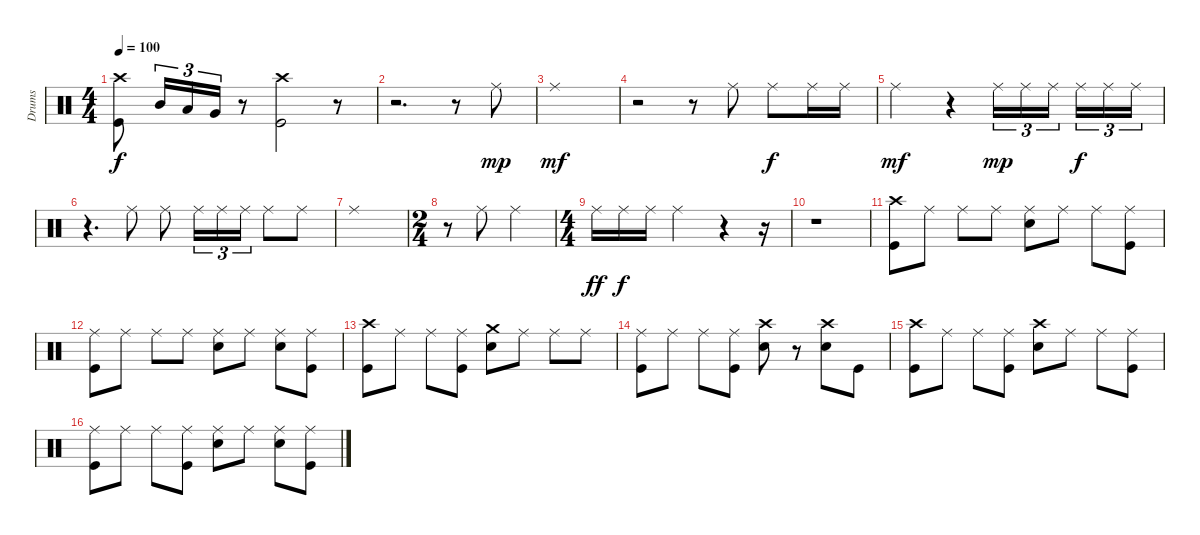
\track ("Drums" "Drums") {instrument percussion}
\staff {score}
\articulation defaults
\ts (4 4)
\tempo 100
\clef neutral
\ks c
("Crash high (hit)" "Kick (hit)").8{dy f} "Mid Tom (hit)".16{tu (3 2)} "Low Tom (hit)".16{tu (3 2)} "Very Low Tom (hit)".16{tu (3 2)} r.8 ("Crash high (hit)" "Kick (hit)").2 r.8 |
r.2{d} r.8 "Ride (middle)".8{dy mp} |
"Ride (middle)".1{dy mf} |
r.2 r.8 "Ride (middle)".8 "Ride (middle)".8{dy f} "Ride (middle)".16 "Ride (middle)".16 |
"Ride (middle)".2{dy mf} r.4 "Ride (middle)".16{tu (3 2) dy mp} "Ride (middle)".16{tu (3 2)} "Ride (middle)".16{tu (3 2)} "Ride (middle)".16{tu (3 2) dy f} "Ride (middle)".16{tu (3 2)} "Ride (middle)".16{tu (3 2)} |
r.4{d} "Ride (middle)".8 "Ride (middle)".8 "Ride (middle)".16{tu (3 2)} "Ride (middle)".16{tu (3 2)} "Ride (middle)".16{tu (3 2)} "Ride (middle)".8 "Ride (middle)".8 |
"Ride (middle)".1 |
\ts (2 4)
r.8 "Ride (middle)".8 "Ride (middle)".4 |
\ts (4 4)
"Ride (middle)".16{dy ff} "Ride (middle)".16{dy f} "Ride (middle)".16 "Ride (middle)".2 r.4 r.16 |
r.1 |
("Crash high (hit)" "Kick (hit)").8 "Ride (middle)".8 "Ride (middle)".8 "Ride (middle)".8 ("Ride (middle)" "Snare (hit) 2").8 "Ride (middle)".8 "Ride (middle)".8 ("Ride (middle)" "Kick (hit)").8 |
("Ride (middle)" "Kick (hit)").8 "Ride (middle)".8 "Ride (middle)".8 "Ride (middle)".8 ("Ride (middle)" "Snare (hit) 2").8 "Ride (middle)".8 ("Ride (middle)" "Snare (hit) 2").8 ("Ride (middle)" "Kick (hit)").8 |
("Crash high (hit)" "Kick (hit)").8 "Ride (middle)".8 "Ride (middle)".8 ("Ride (middle)" "Kick (hit)").8 ("Crash medium (hit)" "Snare (hit) 2").8 "Ride (middle)".8 "Ride (middle)".8 "Ride (middle)".8 |
("Ride (middle)" "Kick (hit)").8 "Ride (middle)".8 "Ride (middle)".8 ("Ride (middle)" "Kick (hit)").8 ("Crash high (hit)" "Snare (hit) 2").8 r.8 ("Crash high (hit)" "Snare (hit) 2").8 "Kick (hit)".8 |
("Crash high (hit)" "Kick (hit)").8 "Ride (middle)".8 "Ride (middle)".8 ("Ride (middle)" "Kick (hit)").8 ("Crash high (hit)" "Snare (hit) 2").8 "Ride (middle)".8 "Ride (middle)".8 ("Ride (middle)" "Kick (hit)").8 |
("Ride (middle)" "Kick (hit)").8 "Ride (middle)".8 "Ride (middle)".8 ("Ride (middle)" "Kick (hit)").8 ("Ride (middle)" "Snare (hit) 2").8 "Ride (middle)".8 ("Ride (middle)" "Snare (hit) 2").8 ("Ride (middle)" "Kick (hit)").8
